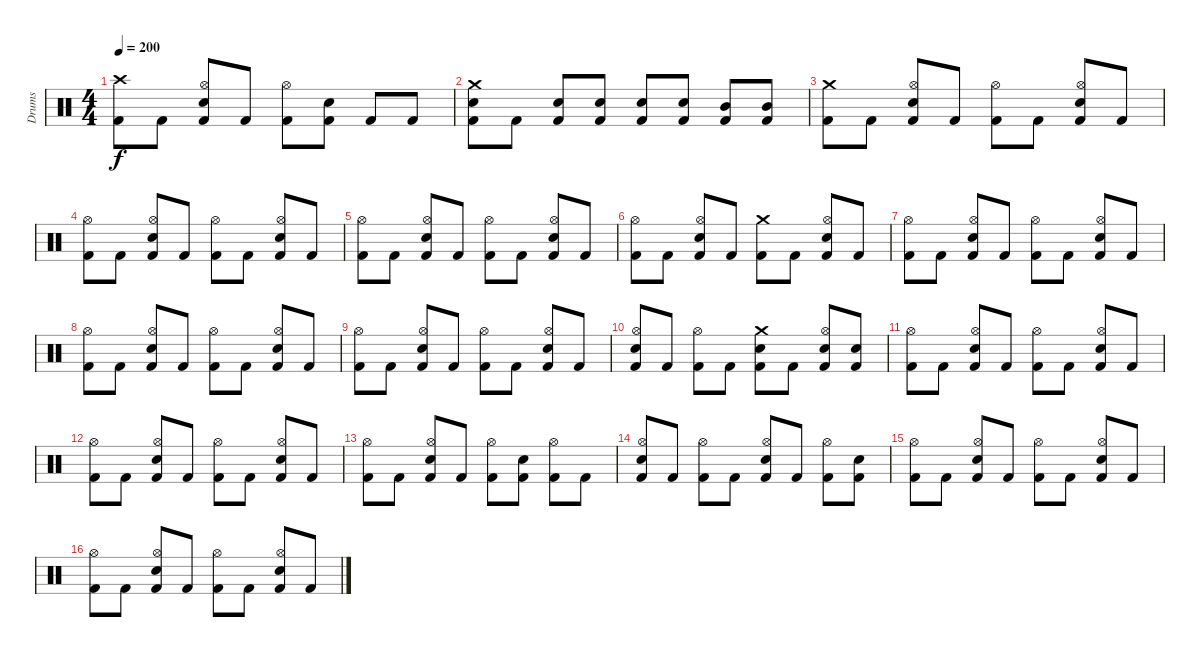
\track ("Drums" "Drums") {instrument percussion}
\staff {score}
\articulation defaults
\ts (4 4)
\tempo 200
\clef neutral
\ks c
("Crash high (hit)" "Kick (hit) 2").8{dy f} "Kick (hit) 2".8 ("Hi-Hat (open)" "Snare (hit) 2" "Kick (hit) 2").8 "Kick (hit) 2".8 ("Hi-Hat (open)" "Kick (hit) 2").8 ("Snare (hit) 2" "Kick (hit) 2").8 "Kick (hit) 2".8 "Kick (hit) 2".8 |
("Crash medium (hit)" "Snare (hit) 2" "Kick (hit) 2").8 "Kick (hit) 2".8 ("Snare (hit) 2" "Kick (hit) 2").8 ("Snare (hit) 2" "Kick (hit) 2").8 ("Snare (hit) 2" "Kick (hit) 2").8 ("Snare (hit) 2" "Kick (hit) 2").8 ("Mid Tom (hit)" "Kick (hit) 2").8 ("Mid Tom (hit)" "Kick (hit) 2").8 |
("Crash medium (hit)" "Kick (hit) 2").8 "Kick (hit) 2".8 ("Hi-Hat (open)" "Snare (hit) 2" "Kick (hit) 2").8 "Kick (hit) 2".8 ("Hi-Hat (open)" "Kick (hit) 2").8 "Kick (hit) 2".8 ("Hi-Hat (open)" "Snare (hit) 2" "Kick (hit) 2").8 "Kick (hit) 2".8 |
("Hi-Hat (open)" "Kick (hit) 2").8 "Kick (hit) 2".8 ("Hi-Hat (open)" "Snare (hit) 2" "Kick (hit) 2").8 "Kick (hit) 2".8 ("Hi-Hat (open)" "Kick (hit) 2").8 "Kick (hit) 2".8 ("Hi-Hat (open)" "Snare (hit) 2" "Kick (hit) 2").8 "Kick (hit) 2".8 |
("Hi-Hat (open)" "Kick (hit) 2").8 "Kick (hit) 2".8 ("Hi-Hat (open)" "Snare (hit) 2" "Kick (hit) 2").8 "Kick (hit) 2".8 ("Hi-Hat (open)" "Kick (hit) 2").8 "Kick (hit) 2".8 ("Hi-Hat (open)" "Snare (hit) 2" "Kick (hit) 2").8 "Kick (hit) 2".8 |
("Hi-Hat (open)" "Kick (hit) 2").8 "Kick (hit) 2".8 ("Hi-Hat (open)" "Snare (hit) 2" "Kick (hit) 2").8 "Kick (hit) 2".8 ("Crash medium (hit)" "Kick (hit) 2").8 "Kick (hit) 2".8 ("Hi-Hat (open)" "Snare (hit) 2" "Kick (hit) 2").8 "Kick (hit) 2".8 |
("Hi-Hat (open)" "Kick (hit) 2").8 "Kick (hit) 2".8 ("Hi-Hat (open)" "Snare (hit) 2" "Kick (hit) 2").8 "Kick (hit) 2".8 ("Hi-Hat (open)" "Kick (hit) 2").8 "Kick (hit) 2".8 ("Hi-Hat (open)" "Snare (hit) 2" "Kick (hit) 2").8 "Kick (hit) 2".8 |
("Hi-Hat (open)" "Kick (hit) 2").8 "Kick (hit) 2".8 ("Hi-Hat (open)" "Snare (hit) 2" "Kick (hit) 2").8 "Kick (hit) 2".8 ("Hi-Hat (open)" "Kick (hit) 2").8 "Kick (hit) 2".8 ("Hi-Hat (open)" "Snare (hit) 2" "Kick (hit) 2").8 "Kick (hit) 2".8 |
("Hi-Hat (open)" "Kick (hit) 2").8 "Kick (hit) 2".8 ("Hi-Hat (open)" "Snare (hit) 2" "Kick (hit) 2").8 "Kick (hit) 2".8 ("Hi-Hat (open)" "Kick (hit) 2").8 "Kick (hit) 2".8 ("Hi-Hat (open)" "Snare (hit) 2" "Kick (hit) 2").8 "Kick (hit) 2".8 |
("Hi-Hat (open)" "Snare (hit) 2" "Kick (hit) 2").8 "Kick (hit) 2".8 ("Hi-Hat (open)" "Kick (hit) 2").8 "Kick (hit) 2".8 ("Crash medium (hit)" "Snare (hit) 2" "Kick (hit) 2").8 "Kick (hit) 2".8 ("Hi-Hat (open)" "Snare (hit) 2" "Kick (hit) 2").8 ("Snare (hit) 2" "Kick (hit) 2").8 |
("Hi-Hat (open)" "Kick (hit) 2").8 "Kick (hit) 2".8 ("Hi-Hat (open)" "Snare (hit) 2" "Kick (hit) 2").8 "Kick (hit) 2".8 ("Hi-Hat (open)" "Kick (hit) 2").8 "Kick (hit) 2".8 ("Hi-Hat (open)" "Snare (hit) 2" "Kick (hit) 2").8 "Kick (hit) 2".8 |
("Hi-Hat (open)" "Kick (hit) 2").8 "Kick (hit) 2".8 ("Hi-Hat (open)" "Snare (hit) 2" "Kick (hit) 2").8 "Kick (hit) 2".8 ("Hi-Hat (open)" "Kick (hit) 2").8 "Kick (hit) 2".8 ("Hi-Hat (open)" "Snare (hit) 2" "Kick (hit) 2").8 "Kick (hit) 2".8 |
("Hi-Hat (open)" "Kick (hit) 2").8 "Kick (hit) 2".8 ("Hi-Hat (open)" "Snare (hit) 2" "Kick (hit) 2").8 "Kick (hit) 2".8 ("Hi-Hat (open)" "Kick (hit) 2").8 ("Snare (hit) 2" "Kick (hit) 2").8 ("Hi-Hat (open)" "Kick (hit) 2").8 "Kick (hit) 2".8 |
("Hi-Hat (open)" "Snare (hit) 2" "Kick (hit) 2").8 "Kick (hit) 2".8 ("Hi-Hat (open)" "Kick (hit) 2").8 "Kick (hit) 2".8 ("Hi-Hat (open)" "Snare (hit) 2" "Kick (hit) 2").8 "Kick (hit) 2".8 ("Hi-Hat (open)" "Kick (hit) 2").8 ("Snare (hit) 2" "Kick (hit) 2").8 |
("Hi-Hat (open)" "Kick (hit) 2").8 "Kick (hit) 2".8 ("Hi-Hat (open)" "Snare (hit) 2" "Kick (hit) 2").8 "Kick (hit) 2".8 ("Hi-Hat (open)" "Kick (hit) 2").8 "Kick (hit) 2".8 ("Hi-Hat (open)" "Snare (hit) 2" "Kick (hit) 2").8 "Kick (hit) 2".8 |
("Hi-Hat (open)" "Kick (hit) 2").8 "Kick (hit) 2".8 ("Hi-Hat (open)" "Snare (hit) 2" "Kick (hit) 2").8 "Kick (hit) 2".8 ("Hi-Hat (open)" "Kick (hit) 2").8 "Kick (hit) 2".8 ("Hi-Hat (open)" "Snare (hit) 2" "Kick (hit) 2").8 "Kick (hit) 2".8
